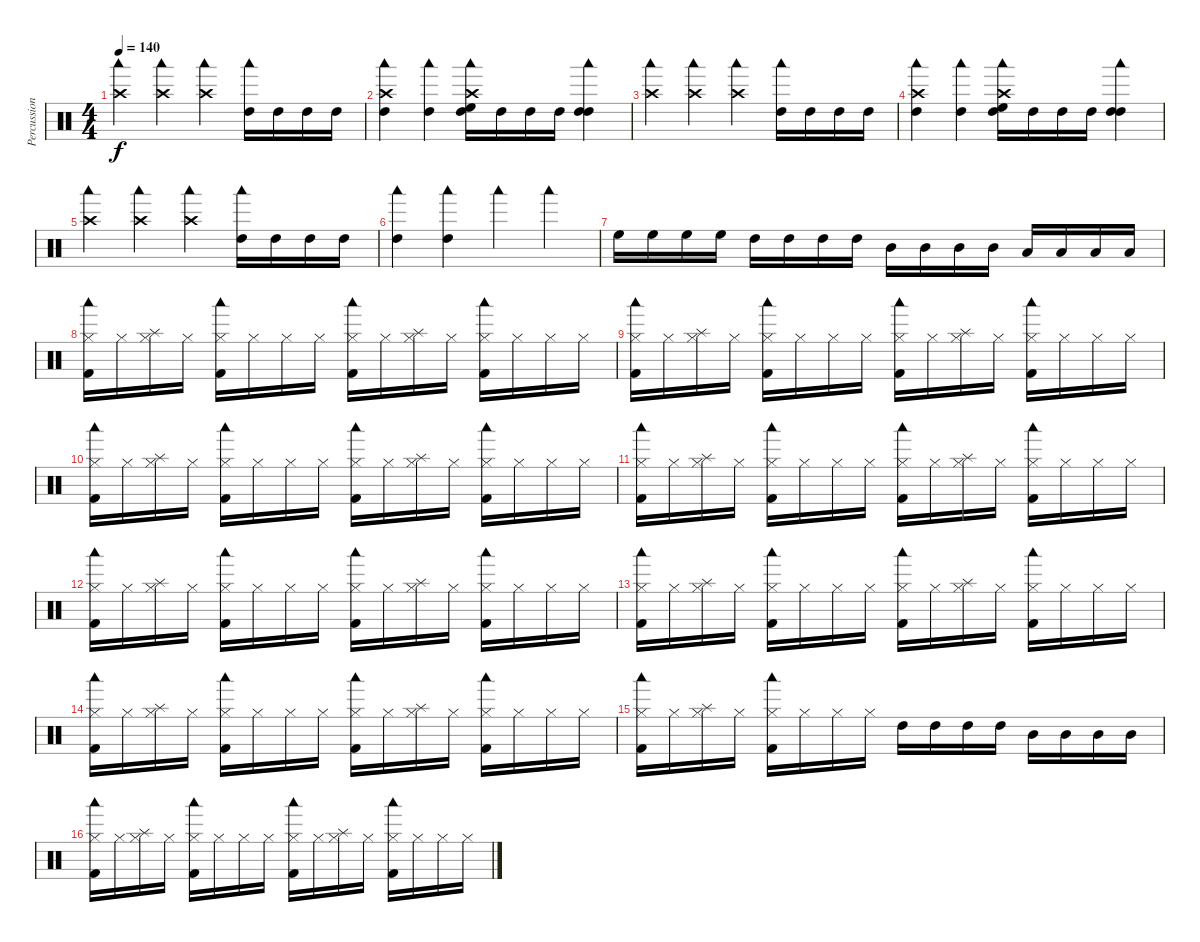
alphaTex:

\track ("Percussion" "Percussion") {instrument percussion}
\staff {score}
\articulation defaults
\ts (4 4)
\tempo 140
\clef neutral
\ks c
("Crash high (hit)" "Woodblock low (hit)").4{dy f} ("Crash high (hit)" "Woodblock low (hit)").4 ("Crash high (hit)" "Woodblock low (hit)").4 ("Woodblock low (hit)" "High Tom (hit)").16 "High Tom (hit)".16 "High Tom (hit)".16 "High Tom (hit)".16 |
("Crash high (hit)" "Woodblock low (hit)" "High Tom (hit)").4 ("Woodblock low (hit)" "High Tom (hit)").4 ("Crash high (hit)" "Woodblock low (hit)" "High Floor Tom (hit)" "High Tom (hit)").16 "High Tom (hit)".16 "High Tom (hit)".16 "High Tom (hit)".16 ("Woodblock low (hit)" "High Tom (hit)" "High Tom (hit)").4 |
("Crash high (hit)" "Woodblock low (hit)").4 ("Crash high (hit)" "Woodblock low (hit)").4 ("Crash high (hit)" "Woodblock low (hit)").4 ("Woodblock low (hit)" "High Tom (hit)").16 "High Tom (hit)".16 "High Tom (hit)".16 "High Tom (hit)".16 |
("Crash high (hit)" "Woodblock low (hit)" "High Tom (hit)").4 ("Woodblock low (hit)" "High Tom (hit)").4 ("Crash high (hit)" "Woodblock low (hit)" "High Floor Tom (hit)" "High Tom (hit)").16 "High Tom (hit)".16 "High Tom (hit)".16 "High Tom (hit)".16 ("Woodblock low (hit)" "High Tom (hit)" "High Tom (hit)").4 |
("Crash high (hit)" "Woodblock low (hit)").4 ("Crash high (hit)" "Woodblock low (hit)").4 ("Crash high (hit)" "Woodblock low (hit)").4 ("Woodblock low (hit)" "High Tom (hit)").16 "High Tom (hit)".16 "High Tom (hit)".16 "High Tom (hit)".16 |
("Woodblock low (hit)" "High Tom (hit)").4 ("Woodblock low (hit)" "High Tom (hit)").4 "Woodblock low (hit)".4 "Woodblock low (hit)".4 |
"High Floor Tom (hit)".16 "High Floor Tom (hit)".16 "High Floor Tom (hit)".16 "High Floor Tom (hit)".16 "High Tom (hit)".16 "High Tom (hit)".16 "High Tom (hit)".16 "High Tom (hit)".16 "Mid Tom (hit)".16 "Mid Tom (hit)".16 "Mid Tom (hit)".16 "Mid Tom (hit)".16 "Low Tom (hit)".16 "Low Tom (hit)".16 "Low Tom (hit)".16 "Low Tom (hit)".16 |
("Woodblock low (hit)" "Hi-Hat (closed)" "Kick (hit) 2").16 "Hi-Hat (closed)".16 ("Splash (hit)" "Hi-Hat (closed)").16 "Hi-Hat (closed)".16 ("Woodblock low (hit)" "Hi-Hat (closed)" "Kick (hit) 2").16 "Hi-Hat (closed)".16 "Hi-Hat (closed)".16 "Hi-Hat (closed)".16 ("Woodblock low (hit)" "Hi-Hat (closed)" "Kick (hit) 2").16 "Hi-Hat (closed)".16 ("Splash (hit)" "Hi-Hat (closed)").16 "Hi-Hat (closed)".16 ("Woodblock low (hit)" "Hi-Hat (closed)" "Kick (hit) 2").16 "Hi-Hat (closed)".16 "Hi-Hat (closed)".16 "Hi-Hat (closed)".16 |
("Woodblock low (hit)" "Hi-Hat (closed)" "Kick (hit) 2").16 "Hi-Hat (closed)".16 ("Splash (hit)" "Hi-Hat (closed)").16 "Hi-Hat (closed)".16 ("Woodblock low (hit)" "Hi-Hat (closed)" "Kick (hit) 2").16 "Hi-Hat (closed)".16 "Hi-Hat (closed)".16 "Hi-Hat (closed)".16 ("Woodblock low (hit)" "Hi-Hat (closed)" "Kick (hit) 2").16 "Hi-Hat (closed)".16 ("Splash (hit)" "Hi-Hat (closed)").16 "Hi-Hat (closed)".16 ("Woodblock low (hit)" "Hi-Hat (closed)" "Kick (hit) 2").16 "Hi-Hat (closed)".16 "Hi-Hat (closed)".16 "Hi-Hat (closed)".16 |
("Woodblock low (hit)" "Hi-Hat (closed)" "Kick (hit) 2").16 "Hi-Hat (closed)".16 ("Splash (hit)" "Hi-Hat (closed)").16 "Hi-Hat (closed)".16 ("Woodblock low (hit)" "Hi-Hat (closed)" "Kick (hit) 2").16 "Hi-Hat (closed)".16 "Hi-Hat (closed)".16 "Hi-Hat (closed)".16 ("Woodblock low (hit)" "Hi-Hat (closed)" "Kick (hit) 2").16 "Hi-Hat (closed)".16 ("Splash (hit)" "Hi-Hat (closed)").16 "Hi-Hat (closed)".16 ("Woodblock low (hit)" "Hi-Hat (closed)" "Kick (hit) 2").16 "Hi-Hat (closed)".16 "Hi-Hat (closed)".16 "Hi-Hat (closed)".16 |
("Woodblock low (hit)" "Hi-Hat (closed)" "Kick (hit) 2").16 "Hi-Hat (closed)".16 ("Splash (hit)" "Hi-Hat (closed)").16 "Hi-Hat (closed)".16 ("Woodblock low (hit)" "Hi-Hat (closed)" "Kick (hit) 2").16 "Hi-Hat (closed)".16 "Hi-Hat (closed)".16 "Hi-Hat (closed)".16 ("Woodblock low (hit)" "Hi-Hat (closed)" "Kick (hit) 2").16 "Hi-Hat (closed)".16 ("Splash (hit)" "Hi-Hat (closed)").16 "Hi-Hat (closed)".16 ("Woodblock low (hit)" "Hi-Hat (closed)" "Kick (hit) 2").16 "Hi-Hat (closed)".16 "Hi-Hat (closed)".16 "Hi-Hat (closed)".16 |
("Woodblock low (hit)" "Hi-Hat (closed)" "Kick (hit) 2").16 "Hi-Hat (closed)".16 ("Splash (hit)" "Hi-Hat (closed)").16 "Hi-Hat (closed)".16 ("Woodblock low (hit)" "Hi-Hat (closed)" "Kick (hit) 2").16 "Hi-Hat (closed)".16 "Hi-Hat (closed)".16 "Hi-Hat (closed)".16 ("Woodblock low (hit)" "Hi-Hat (closed)" "Kick (hit) 2").16 "Hi-Hat (closed)".16 ("Splash (hit)" "Hi-Hat (closed)").16 "Hi-Hat (closed)".16 ("Woodblock low (hit)" "Hi-Hat (closed)" "Kick (hit) 2").16 "Hi-Hat (closed)".16 "Hi-Hat (closed)".16 "Hi-Hat (closed)".16 |
("Woodblock low (hit)" "Hi-Hat (closed)" "Kick (hit) 2").16 "Hi-Hat (closed)".16 ("Splash (hit)" "Hi-Hat (closed)").16 "Hi-Hat (closed)".16 ("Woodblock low (hit)" "Hi-Hat (closed)" "Kick (hit) 2").16 "Hi-Hat (closed)".16 "Hi-Hat (closed)".16 "Hi-Hat (closed)".16 ("Woodblock low (hit)" "Hi-Hat (closed)" "Kick (hit) 2").16 "Hi-Hat (closed)".16 ("Splash (hit)" "Hi-Hat (closed)").16 "Hi-Hat (closed)".16 ("Woodblock low (hit)" "Hi-Hat (closed)" "Kick (hit) 2").16 "Hi-Hat (closed)".16 "Hi-Hat (closed)".16 "Hi-Hat (closed)".16 |
("Woodblock low (hit)" "Hi-Hat (closed)" "Kick (hit) 2").16 "Hi-Hat (closed)".16 ("Splash (hit)" "Hi-Hat (closed)").16 "Hi-Hat (closed)".16 ("Woodblock low (hit)" "Hi-Hat (closed)" "Kick (hit) 2").16 "Hi-Hat (closed)".16 "Hi-Hat (closed)".16 "Hi-Hat (closed)".16 ("Woodblock low (hit)" "Hi-Hat (closed)" "Kick (hit) 2").16 "Hi-Hat (closed)".16 ("Splash (hit)" "Hi-Hat (closed)").16 "Hi-Hat (closed)".16 ("Woodblock low (hit)" "Hi-Hat (closed)" "Kick (hit) 2").16 "Hi-Hat (closed)".16 "Hi-Hat (closed)".16 "Hi-Hat (closed)".16 |
("Woodblock low (hit)" "Hi-Hat (closed)" "Kick (hit) 2").16 "Hi-Hat (closed)".16 ("Splash (hit)" "Hi-Hat (closed)").16 "Hi-Hat (closed)".16 ("Woodblock low (hit)" "Hi-Hat (closed)" "Kick (hit) 2").16 "Hi-Hat (closed)".16 "Hi-Hat (closed)".16 "Hi-Hat (closed)".16 "High Tom (hit)".16 "High Tom (hit)".16 "High Tom (hit)".16 "High Tom (hit)".16 "Mid Tom (hit)".16 "Mid Tom (hit)".16 "Mid Tom (hit)".16 "Mid Tom (hit)".16 |
("Woodblock low (hit)" "Hi-Hat (closed)" "Kick (hit) 2").16 "Hi-Hat (closed)".16 ("Splash (hit)" "Hi-Hat (closed)").16 "Hi-Hat (closed)".16 ("Woodblock low (hit)" "Hi-Hat (closed)" "Kick (hit) 2").16 "Hi-Hat (closed)".16 "Hi-Hat (closed)".16 "Hi-Hat (closed)".16 ("Woodblock low (hit)" "Hi-Hat (closed)" "Kick (hit) 2").16 "Hi-Hat (closed)".16 ("Splash (hit)" "Hi-Hat (closed)").16 "Hi-Hat (closed)".16 ("Woodblock low (hit)" "Hi-Hat (closed)" "Kick (hit) 2").16 "Hi-Hat (closed)".16 "Hi-Hat (closed)".16 "Hi-Hat (closed)".16
